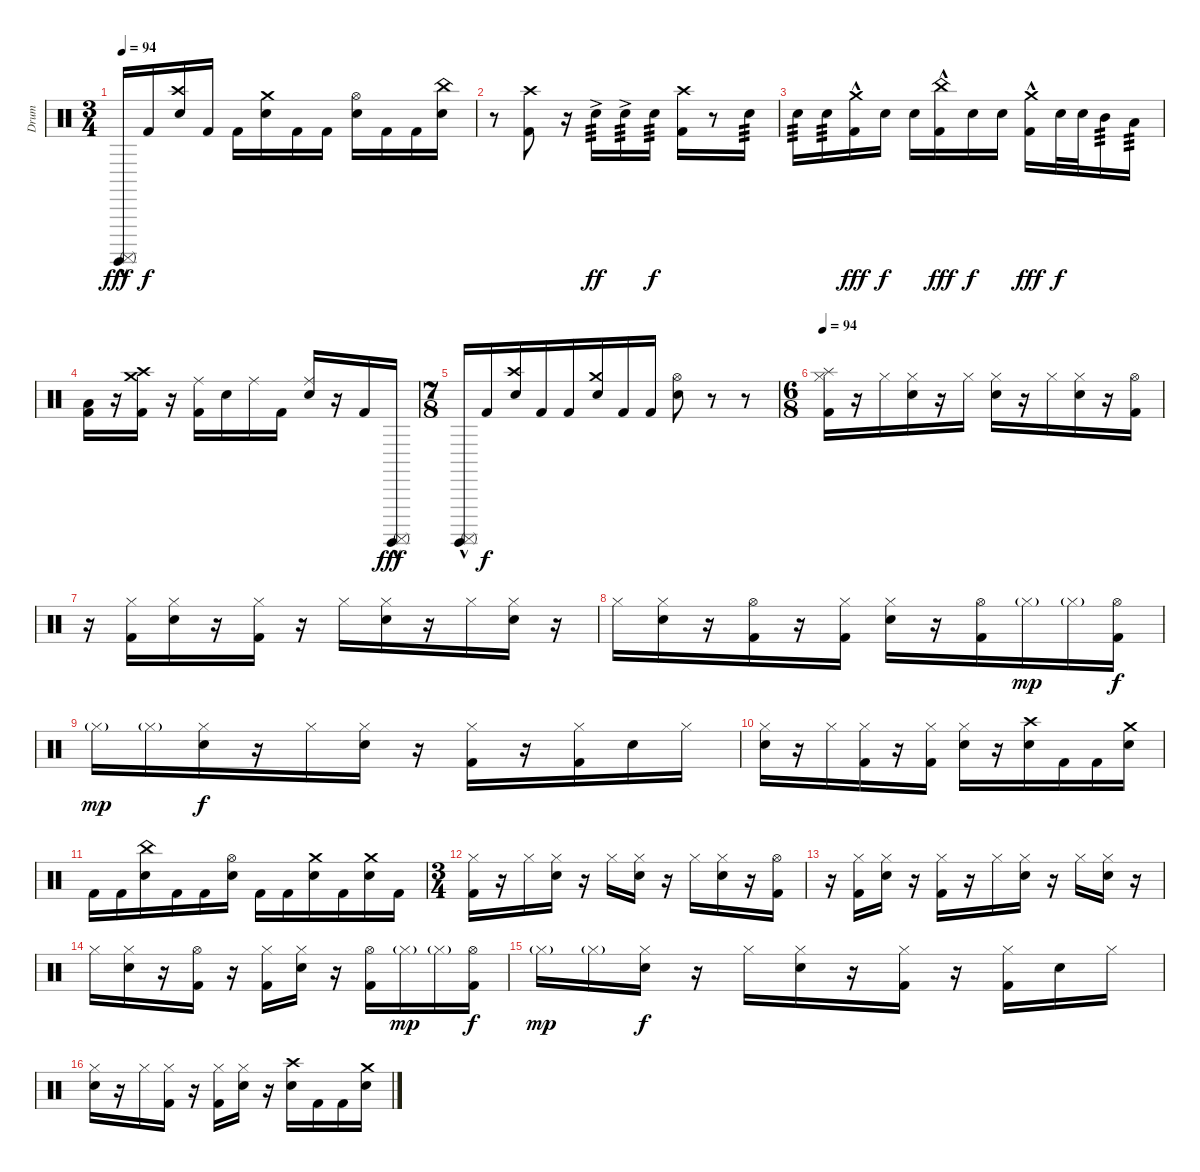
\track ("Drum" "Drum") {instrument percussion}
\staff {score}
\articulation defaults
\ts (3 4)
\tempo 94
\clef neutral
\ks c
("Surdo (mute)"{hac} "Surdo (hit)"{hac}).16{dy fff} "Kick (hit) 2".16{dy f} ("Crash high (hit)" "Electric Snare (hit)").16 "Kick (hit) 2".16 "Kick (hit) 2".16 ("Crash medium (hit)" "Electric Snare (hit)").16 "Kick (hit) 2".16 "Kick (hit) 2".16 ("Hi-Hat (open)" "Electric Snare (hit)").16 "Kick (hit) 2".16 "Kick (hit) 2".16 ("China (hit)" "Electric Snare (hit)").16 |
r.8 ("Crash high (hit)" "Kick (hit) 2").8 r.16 "Electric Snare (hit)"{ac}.16{tp 3 dy ff} "Electric Snare (hit)"{ac}.16{tp 3} "Electric Snare (hit)".16{tp 3 dy f} ("Crash high (hit)" "Kick (hit) 2").16 r.8 "Electric Snare (hit)".16{tp 3} |
"Electric Snare (hit)".16{tp 3} "Electric Snare (hit)".16{tp 3} ("Crash medium (hit)"{hac} "Kick (hit) 2").16{dy fff} "Electric Snare (hit)".16{dy f} "Electric Snare (hit)".16 ("China (hit)"{hac} "Kick (hit) 2").16{dy fff} "Electric Snare (hit)".16{dy f} "Electric Snare (hit)".16 ("Crash medium (hit)"{hac} "Kick (hit) 2").16{dy fff} "Electric Snare (hit)".32{dy f} "Electric Snare (hit)".32 "Mid Tom (hit)".16{tp 3} "Low Tom (hit)".16{tp 3} |
("Low Tom (hit)" "Kick (hit) 2").16 r.16 ("Crash medium (hit)" "Crash high (hit)" "Kick (hit) 2").16 r.16 ("Ride (middle)" "Kick (hit) 2").16 "Electric Snare (hit)".16 "Ride (middle)".16 "Kick (hit) 2".16 ("Ride (middle)" "Electric Snare (hit)").16 r.16 "Kick (hit) 2".16 ("Surdo (mute)"{hac} "Surdo (hit)"{hac}).16{dy fff} |
\ts (7 8)
("Surdo (mute)"{hac} "Surdo (hit)"{hac}).16 "Kick (hit) 2".16{dy f} ("Crash high (hit)" "Electric Snare (hit)").16 "Kick (hit) 2".16 "Kick (hit) 2".16 ("Crash medium (hit)" "Electric Snare (hit)").16 "Kick (hit) 2".16 "Kick (hit) 2".16 ("Hi-Hat (open)" "Electric Snare (hit)").8 r.8 r.8 |
\ts (6 8)
\tempo 94
("Hi-Hat (closed)" "Splash (hit)" "Kick (hit) 2").16 r.16 "Hi-Hat (closed)".16 ("Hi-Hat (closed)" "Electric Snare (hit)").16 r.16 "Hi-Hat (closed)".16 ("Hi-Hat (closed)" "Electric Snare (hit)").16 r.16 "Hi-Hat (closed)".16 ("Hi-Hat (closed)" "Electric Snare (hit)").16 r.16 ("Hi-Hat (open)" "Kick (hit) 2").16 |
r.16 ("Hi-Hat (closed)" "Kick (hit) 2").16 ("Hi-Hat (closed)" "Electric Snare (hit)").16 r.16 ("Hi-Hat (closed)" "Kick (hit) 2").16 r.16 "Hi-Hat (closed)".16 ("Hi-Hat (closed)" "Electric Snare (hit)").16 r.16 "Hi-Hat (closed)".16 ("Hi-Hat (closed)" "Electric Snare (hit)").16 r.16 |
"Hi-Hat (closed)".16 ("Hi-Hat (closed)" "Electric Snare (hit)").16 r.16 ("Hi-Hat (open)" "Kick (hit) 2").16 r.16 ("Hi-Hat (closed)" "Kick (hit) 2").16 ("Hi-Hat (closed)" "Electric Snare (hit)").16 r.16 ("Hi-Hat (open)" "Kick (hit) 2").16 "Hi-Hat (closed)"{g}.16{dy mp} "Hi-Hat (closed)"{g}.16 ("Hi-Hat (open)" "Kick (hit) 2").16{dy f} |
"Hi-Hat (closed)"{g}.16{dy mp} "Hi-Hat (closed)"{g}.16 ("Hi-Hat (closed)" "Electric Snare (hit)").16{dy f} r.16 "Hi-Hat (closed)".16 ("Hi-Hat (closed)" "Electric Snare (hit)").16 r.16 ("Hi-Hat (closed)" "Kick (hit) 2").16 r.16 ("Hi-Hat (closed)" "Kick (hit) 2").16 "Electric Snare (hit)".16 "Hi-Hat (closed)".16 |
("Hi-Hat (closed)" "Electric Snare (hit)").16 r.16 "Hi-Hat (closed)".16 ("Hi-Hat (closed)" "Kick (hit) 2").16 r.16 ("Hi-Hat (closed)" "Kick (hit) 2").16 ("Hi-Hat (closed)" "Electric Snare (hit)").16 r.16 ("Crash high (hit)" "Electric Snare (hit)").16 "Kick (hit) 2".16 "Kick (hit) 2".16 ("Crash medium (hit)" "Electric Snare (hit)").16 |
"Kick (hit) 2".16 "Kick (hit) 2".16 ("China (hit)" "Electric Snare (hit)").16 "Kick (hit) 2".16 "Kick (hit) 2".16 ("Hi-Hat (open)" "Electric Snare (hit)").16 "Kick (hit) 2".16 "Kick (hit) 2".16 ("Crash medium (hit)" "Electric Snare (hit)").16 "Kick (hit) 2".16 ("Crash medium (hit)" "Electric Snare (hit)").16 "Kick (hit) 2".16 |
\ts (3 4)
("Hi-Hat (closed)" "Kick (hit) 2").16 r.16 "Hi-Hat (closed)".16 ("Hi-Hat (closed)" "Electric Snare (hit)").16 r.16 "Hi-Hat (closed)".16 ("Hi-Hat (closed)" "Electric Snare (hit)").16 r.16 "Hi-Hat (closed)".16 ("Hi-Hat (closed)" "Electric Snare (hit)").16 r.16 ("Hi-Hat (open)" "Kick (hit) 2").16 |
r.16 ("Hi-Hat (closed)" "Kick (hit) 2").16 ("Hi-Hat (closed)" "Electric Snare (hit)").16 r.16 ("Hi-Hat (closed)" "Kick (hit) 2").16 r.16 "Hi-Hat (closed)".16 ("Hi-Hat (closed)" "Electric Snare (hit)").16 r.16 "Hi-Hat (closed)".16 ("Hi-Hat (closed)" "Electric Snare (hit)").16 r.16 |
"Hi-Hat (closed)".16 ("Hi-Hat (closed)" "Electric Snare (hit)").16 r.16 ("Hi-Hat (open)" "Kick (hit) 2").16 r.16 ("Hi-Hat (closed)" "Kick (hit) 2").16 ("Hi-Hat (closed)" "Electric Snare (hit)").16 r.16 ("Hi-Hat (open)" "Kick (hit) 2").16 "Hi-Hat (closed)"{g}.16{dy mp} "Hi-Hat (closed)"{g}.16 ("Hi-Hat (open)" "Kick (hit) 2").16{dy f} |
"Hi-Hat (closed)"{g}.16{dy mp} "Hi-Hat (closed)"{g}.16 ("Hi-Hat (closed)" "Electric Snare (hit)").16{dy f} r.16 "Hi-Hat (closed)".16 ("Hi-Hat (closed)" "Electric Snare (hit)").16 r.16 ("Hi-Hat (closed)" "Kick (hit) 2").16 r.16 ("Hi-Hat (closed)" "Kick (hit) 2").16 "Electric Snare (hit)".16 "Hi-Hat (closed)".16 |
("Hi-Hat (closed)" "Electric Snare (hit)").16 r.16 "Hi-Hat (closed)".16 ("Hi-Hat (closed)" "Kick (hit) 2").16 r.16 ("Hi-Hat (closed)" "Kick (hit) 2").16 ("Hi-Hat (closed)" "Electric Snare (hit)").16 r.16 ("Crash high (hit)" "Electric Snare (hit)").16 "Kick (hit) 2".16 "Kick (hit) 2".16 ("Crash medium (hit)" "Electric Snare (hit)").16
